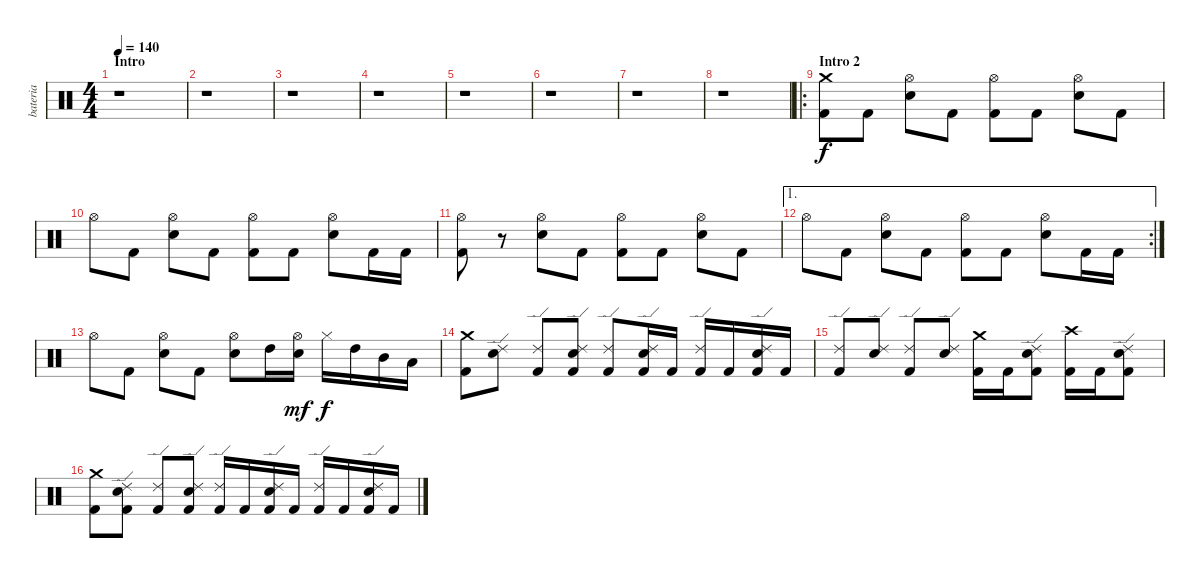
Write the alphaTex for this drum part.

\track ("bateria" "bateria") {instrument percussion}
\staff {score}
\articulation defaults
\ts (4 4)
\section ("" "Intro")
\tempo 140
\clef neutral
\ks c
r.1{dy f} |
r.1 |
r.1 |
r.1 |
r.1 |
r.1 |
r.1 |
r.1 |
\ro
\section ("" "Intro 2")
("Crash medium (hit)" "Kick (hit) 2").8 "Kick (hit) 2".8 ("Hi-Hat (open)" "Electric Snare (hit)").8 "Kick (hit) 2".8 ("Hi-Hat (open)" "Kick (hit) 2").8 "Kick (hit) 2".8 ("Hi-Hat (open)" "Electric Snare (hit)").8 "Kick (hit) 2".8 |
"Hi-Hat (open)".8 "Kick (hit) 2".8 ("Hi-Hat (open)" "Electric Snare (hit)").8 "Kick (hit) 2".8 ("Hi-Hat (open)" "Kick (hit) 2").8 "Kick (hit) 2".8 ("Hi-Hat (open)" "Electric Snare (hit)").8 "Kick (hit) 2".16 "Kick (hit) 2".16 |
("Hi-Hat (open)" "Kick (hit) 2").8 r.8 ("Hi-Hat (open)" "Electric Snare (hit)").8 "Kick (hit) 2".8 ("Hi-Hat (open)" "Kick (hit) 2").8 "Kick (hit) 2".8 ("Hi-Hat (open)" "Electric Snare (hit)").8 "Kick (hit) 2".8 |
\ae 1
\rc 2 "Hi-Hat (open)".8 "Kick (hit) 2".8
("Hi-Hat (open)" "Electric Snare (hit)").8 "Kick (hit) 2".8 ("Hi-Hat (open)" "Kick (hit) 2").8 "Kick (hit) 2".8 ("Hi-Hat (open)" "Electric Snare (hit)").8 "Kick (hit) 2".16 "Kick (hit) 2".16 |
"Hi-Hat (open)".8 "Kick (hit) 2".8 ("Hi-Hat (open)" "Electric Snare (hit)").8 "Kick (hit) 2".8 ("Hi-Hat (open)" "Electric Snare (hit)").8 "High Tom (hit)".16 ("Hi-Hat (open)" "Electric Snare (hit)").16{dy mf} "Hi-Hat (closed)".16{dy f} "High Tom (hit)".16 "Mid Tom (hit)".16 "Low Tom (hit)".16 |
("Crash medium (hit)" "Kick (hit) 2").8 ("Ride (edge) 2" "Electric Snare (hit)").8 ("Ride (edge) 2" "Kick (hit) 2").8 ("Ride (edge) 2" "Electric Snare (hit)" "Kick (hit) 2").8 ("Ride (edge) 2" "Kick (hit) 2").8 ("Ride (edge) 2" "Electric Snare (hit)" "Kick (hit) 2").16 "Kick (hit) 2".16 ("Ride (edge) 2" "Kick (hit) 2").16 "Kick (hit) 2".16 ("Ride (edge) 2" "Electric Snare (hit)" "Kick (hit) 2").16 "Kick (hit) 2".16 |
("Ride (edge) 2" "Kick (hit) 2").8 ("Ride (edge) 2" "Electric Snare (hit)").8 ("Ride (edge) 2" "Kick (hit) 2").8 ("Ride (edge) 2" "Electric Snare (hit)").8 ("Crash medium (hit)" "Kick (hit) 2").16 "Kick (hit) 2".16 ("Ride (edge) 2" "Electric Snare (hit)" "Kick (hit) 2").8 ("Crash high (hit)" "Kick (hit) 2").16 "Kick (hit) 2".16 ("Ride (edge) 2" "Electric Snare (hit)" "Kick (hit) 2").8 |
("Crash medium (hit)" "Kick (hit) 2").8 ("Ride (edge) 2" "Electric Snare (hit)" "Kick (hit) 2").8 ("Ride (edge) 2" "Kick (hit) 2").8 ("Ride (edge) 2" "Electric Snare (hit)" "Kick (hit) 2").8 ("Ride (edge) 2" "Kick (hit) 2").16 "Kick (hit) 2".16 ("Ride (edge) 2" "Electric Snare (hit)" "Kick (hit) 2").16 "Kick (hit) 2".16 ("Ride (edge) 2" "Kick (hit) 2").16 "Kick (hit) 2".16 ("Ride (edge) 2" "Electric Snare (hit)" "Kick (hit) 2").16 "Kick (hit) 2".16
